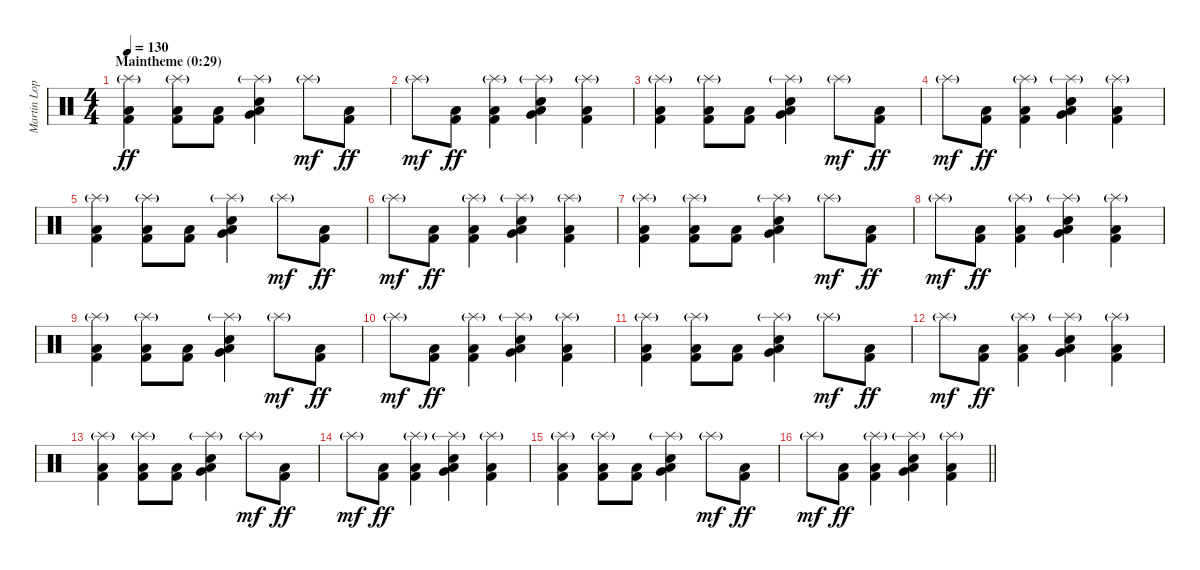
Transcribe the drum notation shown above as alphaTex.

\track ("Martin Lopez" "Martin Lop") {instrument percussion}
\staff {score}
\articulation defaults
\ts (4 4)
\section ("" "Maintheme (0:29)")
\tempo 130
\clef neutral
\ks c
("Splash (hit)"{g} "Kick (hit) 2" "Low Floor Tom (hit)").4{dy ff} ("Splash (hit)"{g} "Kick (hit) 2" "Low Floor Tom (hit)").8 ("Kick (hit) 2" "Low Floor Tom (hit)").8 ("Splash (hit)"{g} "Very Low Tom (hit)" "Snare (hit) 2" "Low Floor Tom (hit)").4 "Splash (hit)"{g}.8{dy mf} ("Kick (hit) 2" "Low Floor Tom (hit)").8{dy ff} |
"Splash (hit)"{g}.8{dy mf} ("Kick (hit) 2" "Low Floor Tom (hit)").8{dy ff} ("Splash (hit)"{g} "Kick (hit) 2" "Low Floor Tom (hit)").4 ("Splash (hit)"{g} "Very Low Tom (hit)" "Snare (hit) 2" "Low Floor Tom (hit)").4 ("Splash (hit)"{g} "Kick (hit) 2" "Low Floor Tom (hit)").4 |
("Splash (hit)"{g} "Kick (hit) 2" "Low Floor Tom (hit)").4 ("Splash (hit)"{g} "Kick (hit) 2" "Low Floor Tom (hit)").8 ("Kick (hit) 2" "Low Floor Tom (hit)").8 ("Splash (hit)"{g} "Very Low Tom (hit)" "Snare (hit) 2" "Low Floor Tom (hit)").4 "Splash (hit)"{g}.8{dy mf} ("Kick (hit) 2" "Low Floor Tom (hit)").8{dy ff} |
"Splash (hit)"{g}.8{dy mf} ("Kick (hit) 2" "Low Floor Tom (hit)").8{dy ff} ("Splash (hit)"{g} "Kick (hit) 2" "Low Floor Tom (hit)").4 ("Splash (hit)"{g} "Very Low Tom (hit)" "Snare (hit) 2" "Low Floor Tom (hit)").4 ("Splash (hit)"{g} "Kick (hit) 2" "Low Floor Tom (hit)").4 |
("Splash (hit)"{g} "Kick (hit) 2" "Low Floor Tom (hit)").4 ("Splash (hit)"{g} "Kick (hit) 2" "Low Floor Tom (hit)").8 ("Kick (hit) 2" "Low Floor Tom (hit)").8 ("Splash (hit)"{g} "Very Low Tom (hit)" "Snare (hit) 2" "Low Floor Tom (hit)").4 "Splash (hit)"{g}.8{dy mf} ("Kick (hit) 2" "Low Floor Tom (hit)").8{dy ff} |
"Splash (hit)"{g}.8{dy mf} ("Kick (hit) 2" "Low Floor Tom (hit)").8{dy ff} ("Splash (hit)"{g} "Kick (hit) 2" "Low Floor Tom (hit)").4 ("Splash (hit)"{g} "Very Low Tom (hit)" "Snare (hit) 2" "Low Floor Tom (hit)").4 ("Splash (hit)"{g} "Kick (hit) 2" "Low Floor Tom (hit)").4 |
("Splash (hit)"{g} "Kick (hit) 2" "Low Floor Tom (hit)").4 ("Splash (hit)"{g} "Kick (hit) 2" "Low Floor Tom (hit)").8 ("Kick (hit) 2" "Low Floor Tom (hit)").8 ("Splash (hit)"{g} "Very Low Tom (hit)" "Snare (hit) 2" "Low Floor Tom (hit)").4 "Splash (hit)"{g}.8{dy mf} ("Kick (hit) 2" "Low Floor Tom (hit)").8{dy ff} |
"Splash (hit)"{g}.8{dy mf} ("Kick (hit) 2" "Low Floor Tom (hit)").8{dy ff} ("Splash (hit)"{g} "Kick (hit) 2" "Low Floor Tom (hit)").4 ("Splash (hit)"{g} "Very Low Tom (hit)" "Snare (hit) 2" "Low Floor Tom (hit)").4 ("Splash (hit)"{g} "Kick (hit) 2" "Low Floor Tom (hit)").4 |
("Splash (hit)"{g} "Kick (hit) 2" "Low Floor Tom (hit)").4 ("Splash (hit)"{g} "Kick (hit) 2" "Low Floor Tom (hit)").8 ("Kick (hit) 2" "Low Floor Tom (hit)").8 ("Splash (hit)"{g} "Very Low Tom (hit)" "Snare (hit) 2" "Low Floor Tom (hit)").4 "Splash (hit)"{g}.8{dy mf} ("Kick (hit) 2" "Low Floor Tom (hit)").8{dy ff} |
"Splash (hit)"{g}.8{dy mf} ("Kick (hit) 2" "Low Floor Tom (hit)").8{dy ff} ("Splash (hit)"{g} "Kick (hit) 2" "Low Floor Tom (hit)").4 ("Splash (hit)"{g} "Very Low Tom (hit)" "Snare (hit) 2" "Low Floor Tom (hit)").4 ("Splash (hit)"{g} "Kick (hit) 2" "Low Floor Tom (hit)").4 |
("Splash (hit)"{g} "Kick (hit) 2" "Low Floor Tom (hit)").4 ("Splash (hit)"{g} "Kick (hit) 2" "Low Floor Tom (hit)").8 ("Kick (hit) 2" "Low Floor Tom (hit)").8 ("Splash (hit)"{g} "Very Low Tom (hit)" "Snare (hit) 2" "Low Floor Tom (hit)").4 "Splash (hit)"{g}.8{dy mf} ("Kick (hit) 2" "Low Floor Tom (hit)").8{dy ff} |
"Splash (hit)"{g}.8{dy mf} ("Kick (hit) 2" "Low Floor Tom (hit)").8{dy ff} ("Splash (hit)"{g} "Kick (hit) 2" "Low Floor Tom (hit)").4 ("Splash (hit)"{g} "Very Low Tom (hit)" "Snare (hit) 2" "Low Floor Tom (hit)").4 ("Splash (hit)"{g} "Kick (hit) 2" "Low Floor Tom (hit)").4 |
("Splash (hit)"{g} "Kick (hit) 2" "Low Floor Tom (hit)").4 ("Splash (hit)"{g} "Kick (hit) 2" "Low Floor Tom (hit)").8 ("Kick (hit) 2" "Low Floor Tom (hit)").8 ("Splash (hit)"{g} "Very Low Tom (hit)" "Snare (hit) 2" "Low Floor Tom (hit)").4 "Splash (hit)"{g}.8{dy mf} ("Kick (hit) 2" "Low Floor Tom (hit)").8{dy ff} |
"Splash (hit)"{g}.8{dy mf} ("Kick (hit) 2" "Low Floor Tom (hit)").8{dy ff} ("Splash (hit)"{g} "Kick (hit) 2" "Low Floor Tom (hit)").4 ("Splash (hit)"{g} "Very Low Tom (hit)" "Snare (hit) 2" "Low Floor Tom (hit)").4 ("Splash (hit)"{g} "Kick (hit) 2" "Low Floor Tom (hit)").4 |
("Splash (hit)"{g} "Kick (hit) 2" "Low Floor Tom (hit)").4 ("Splash (hit)"{g} "Kick (hit) 2" "Low Floor Tom (hit)").8 ("Kick (hit) 2" "Low Floor Tom (hit)").8 ("Splash (hit)"{g} "Very Low Tom (hit)" "Snare (hit) 2" "Low Floor Tom (hit)").4 "Splash (hit)"{g}.8{dy mf} ("Kick (hit) 2" "Low Floor Tom (hit)").8{dy ff} |
\barLineRight lightlight "Splash (hit)"{g}.8{dy mf}
("Kick (hit) 2" "Low Floor Tom (hit)").8{dy ff} ("Splash (hit)"{g} "Kick (hit) 2" "Low Floor Tom (hit)").4 ("Splash (hit)"{g} "Very Low Tom (hit)" "Snare (hit) 2" "Low Floor Tom (hit)").4 ("Splash (hit)"{g} "Kick (hit) 2" "Low Floor Tom (hit)").4
